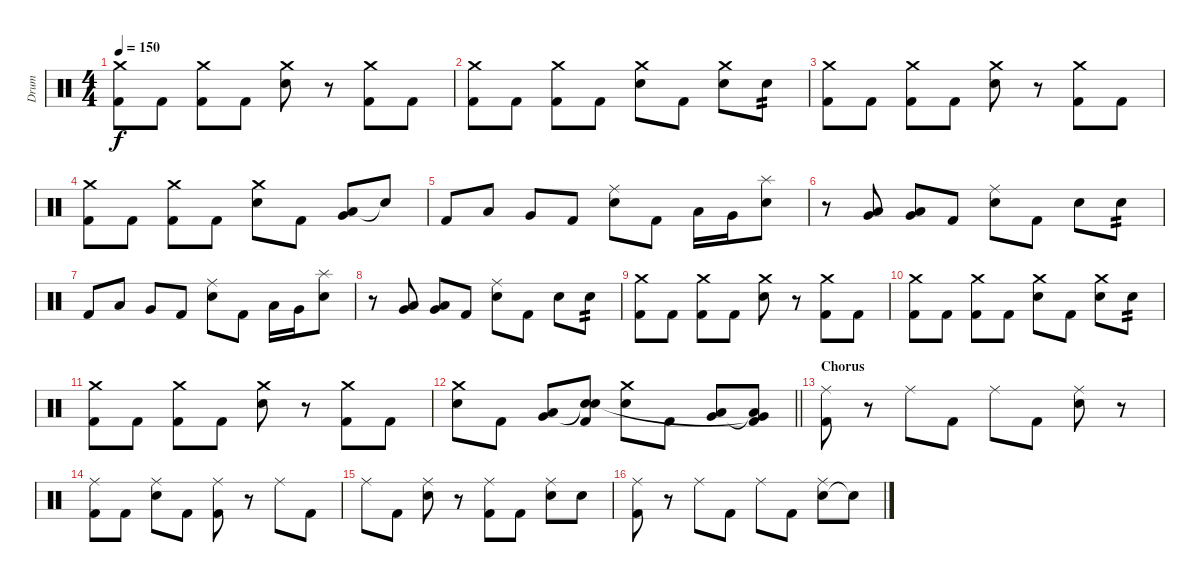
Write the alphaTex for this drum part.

\track ("Drum" "Drum") {instrument percussion}
\staff {score}
\articulation defaults
\ts (4 4)
\tempo 150
\clef neutral
\ks c
("Kick (hit) 2" "Crash medium (hit)").8{dy f} "Kick (hit) 2".8 ("Kick (hit) 2" "Crash medium (hit)").8 "Kick (hit) 2".8 ("Electric Snare (hit)" "Crash medium (hit)").8 r.8 ("Kick (hit) 2" "Crash medium (hit)").8 "Kick (hit) 2".8 |
("Kick (hit) 2" "Crash medium (hit)").8 "Kick (hit) 2".8 ("Kick (hit) 2" "Crash medium (hit)").8 "Kick (hit) 2".8 ("Electric Snare (hit)" "Crash medium (hit)").8 "Kick (hit) 2".8 ("Electric Snare (hit)" "Crash medium (hit)").8 "Electric Snare (hit)".8{tp 2} |
("Kick (hit) 2" "Crash medium (hit)").8 "Kick (hit) 2".8 ("Kick (hit) 2" "Crash medium (hit)").8 "Kick (hit) 2".8 ("Electric Snare (hit)" "Crash medium (hit)").8 r.8 ("Kick (hit) 2" "Crash medium (hit)").8 "Kick (hit) 2".8 |
("Kick (hit) 2" "Crash medium (hit)").8 "Kick (hit) 2".8 ("Kick (hit) 2" "Crash medium (hit)").8 "Kick (hit) 2".8 ("Electric Snare (hit)" "Crash medium (hit)").8 "Kick (hit) 2".8 ("Low Tom (hit)" "Very Low Tom (hit)").8 "Electric Snare (hit)"{t}.8 |
"Kick (hit) 2".8 "Low Tom (hit)".8 "Very Low Tom (hit)".8 "Kick (hit) 2".8 ("Electric Snare (hit)" "Ride (middle)").8 "Kick (hit) 2".8 "Low Tom (hit)".16 "Very Low Tom (hit)".16 ("Electric Snare (hit)" "Splash (hit)").8 |
r.8 ("Very Low Tom (hit)" "Low Tom (hit)").8 ("Very Low Tom (hit)" "Low Tom (hit)").8 "Kick (hit) 2".8 ("Electric Snare (hit)" "Ride (middle)").8 "Kick (hit) 2".8 "Electric Snare (hit)".8 "Electric Snare (hit)".8{tp 2} |
"Kick (hit) 2".8 "Low Tom (hit)".8 "Very Low Tom (hit)".8 "Kick (hit) 2".8 ("Electric Snare (hit)" "Ride (middle)").8 "Kick (hit) 2".8 "Low Tom (hit)".16 "Very Low Tom (hit)".16 ("Electric Snare (hit)" "Splash (hit)").8 |
r.8 ("Very Low Tom (hit)" "Low Tom (hit)").8 ("Very Low Tom (hit)" "Low Tom (hit)").8 "Kick (hit) 2".8 ("Electric Snare (hit)" "Ride (middle)").8 "Kick (hit) 2".8 "Electric Snare (hit)".8 "Electric Snare (hit)".8{tp 2} |
("Kick (hit) 2" "Crash medium (hit)").8 "Kick (hit) 2".8 ("Kick (hit) 2" "Crash medium (hit)").8 "Kick (hit) 2".8 ("Electric Snare (hit)" "Crash medium (hit)").8 r.8 ("Kick (hit) 2" "Crash medium (hit)").8 "Kick (hit) 2".8 |
("Kick (hit) 2" "Crash medium (hit)").8 "Kick (hit) 2".8 ("Kick (hit) 2" "Crash medium (hit)").8 "Kick (hit) 2".8 ("Electric Snare (hit)" "Crash medium (hit)").8 "Kick (hit) 2".8 ("Electric Snare (hit)" "Crash medium (hit)").8 "Electric Snare (hit)".8{tp 2} |
("Kick (hit) 2" "Crash medium (hit)").8 "Kick (hit) 2".8 ("Kick (hit) 2" "Crash medium (hit)").8 "Kick (hit) 2".8 ("Electric Snare (hit)" "Crash medium (hit)").8 r.8 ("Kick (hit) 2" "Crash medium (hit)").8 "Kick (hit) 2".8 |
\barLineRight lightlight
("Electric Snare (hit)" "Crash medium (hit)").8 "Kick (hit) 2".8 ("Low Tom (hit)" "Very Low Tom (hit)").8 ("Kick (hit) 2" "Snare (hit)"{t} "Snare (hit)").8 ("Electric Snare (hit)" "Crash medium (hit)").8 "Kick (hit) 2".8 ("Low Tom (hit)" "Very Low Tom (hit)").8 ("Kick (hit) 2" "Low Tom (hit)"{t} "Very Low Tom (hit)"{t}).8 |
\section ("" "Chorus")
("Kick (hit) 2" "Ride (middle)").8 r.8 "Ride (middle)".8 "Kick (hit) 2".8 "Ride (middle)".8 "Kick (hit) 2".8 ("Electric Snare (hit)" "Ride (middle)").8 r.8 |
("Kick (hit) 2" "Ride (middle)").8 "Kick (hit) 2".8 ("Electric Snare (hit)" "Ride (middle)").8 "Kick (hit) 2".8 ("Kick (hit) 2" "Ride (middle)").8 r.8 "Ride (middle)".8 "Kick (hit) 2".8 |
"Ride (middle)".8 "Kick (hit) 2".8 ("Electric Snare (hit)" "Ride (middle)").8 r.8 ("Kick (hit) 2" "Ride (middle)").8 "Kick (hit) 2".8 ("Electric Snare (hit)" "Ride (middle)").8 "Electric Snare (hit)".8 |
("Kick (hit) 2" "Ride (middle)").8 r.8 "Ride (middle)".8 "Kick (hit) 2".8 "Ride (middle)".8 "Kick (hit) 2".8 ("Electric Snare (hit)" "Ride (middle)").8 "Snare (hit)"{t}.8
